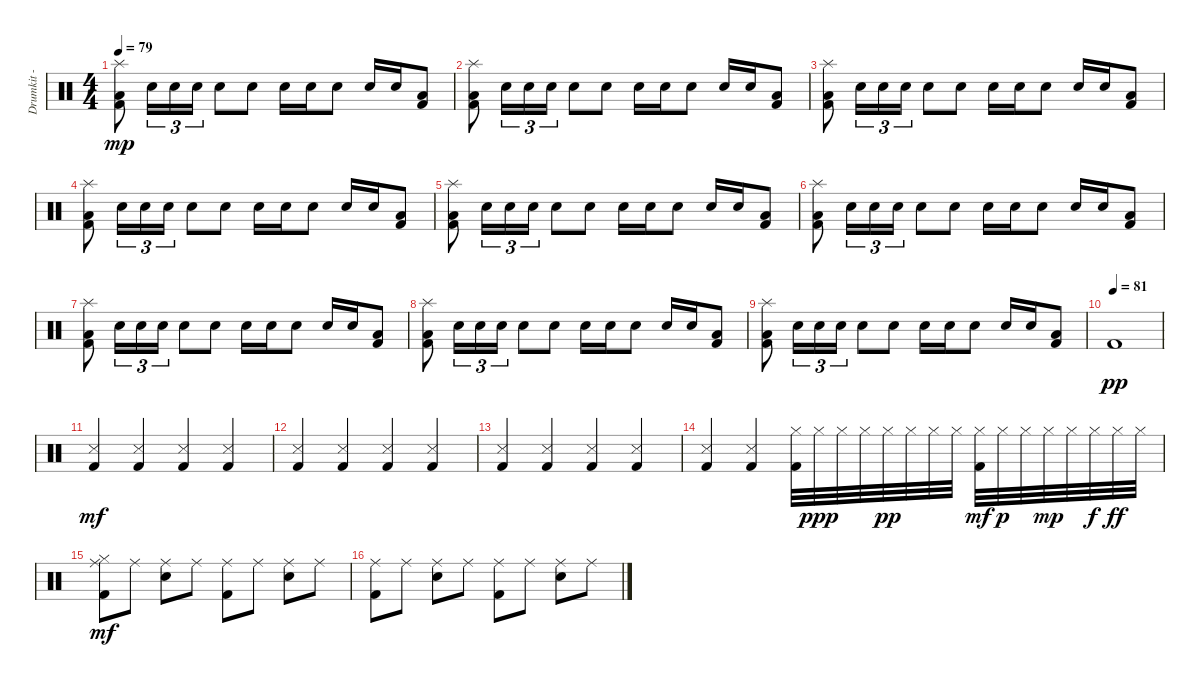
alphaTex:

\track ("Drumkit - Dom" "Drumkit - ") {instrument percussion}
\staff {score}
\articulation defaults
\ts (4 4)
\tempo 79
\clef neutral
\ks c
("Splash (hit)" "Kick (hit) 2" "Low Floor Tom (hit)").8{dy mp} "Snare (hit) 2".16{tu (3 2)} "Snare (hit) 2".16{tu (3 2)} "Snare (hit) 2".16{tu (3 2)} "Snare (hit) 2".8 "Snare (hit) 2".8 "Snare (hit) 2".16 "Snare (hit) 2".16 "Snare (hit) 2".8 "Snare (hit) 2".16 "Snare (hit) 2".16 ("Kick (hit) 2" "Low Tom (hit)").8 |
("Splash (hit)" "Kick (hit) 2" "Low Floor Tom (hit)").8 "Snare (hit) 2".16{tu (3 2)} "Snare (hit) 2".16{tu (3 2)} "Snare (hit) 2".16{tu (3 2)} "Snare (hit) 2".8 "Snare (hit) 2".8 "Snare (hit) 2".16 "Snare (hit) 2".16 "Snare (hit) 2".8 "Snare (hit) 2".16 "Snare (hit) 2".16 ("Kick (hit) 2" "Low Tom (hit)").8 |
("Splash (hit)" "Kick (hit) 2" "Low Floor Tom (hit)").8 "Snare (hit) 2".16{tu (3 2)} "Snare (hit) 2".16{tu (3 2)} "Snare (hit) 2".16{tu (3 2)} "Snare (hit) 2".8 "Snare (hit) 2".8 "Snare (hit) 2".16 "Snare (hit) 2".16 "Snare (hit) 2".8 "Snare (hit) 2".16 "Snare (hit) 2".16 ("Kick (hit) 2" "Low Tom (hit)").8 |
("Splash (hit)" "Kick (hit) 2" "Low Floor Tom (hit)").8 "Snare (hit) 2".16{tu (3 2)} "Snare (hit) 2".16{tu (3 2)} "Snare (hit) 2".16{tu (3 2)} "Snare (hit) 2".8 "Snare (hit) 2".8 "Snare (hit) 2".16 "Snare (hit) 2".16 "Snare (hit) 2".8 "Snare (hit) 2".16 "Snare (hit) 2".16 ("Kick (hit) 2" "Low Tom (hit)").8 |
("Splash (hit)" "Kick (hit) 2" "Low Floor Tom (hit)").8 "Snare (hit) 2".16{tu (3 2)} "Snare (hit) 2".16{tu (3 2)} "Snare (hit) 2".16{tu (3 2)} "Snare (hit) 2".8 "Snare (hit) 2".8 "Snare (hit) 2".16 "Snare (hit) 2".16 "Snare (hit) 2".8 "Snare (hit) 2".16 "Snare (hit) 2".16 ("Kick (hit) 2" "Low Tom (hit)").8 |
("Splash (hit)" "Kick (hit) 2" "Low Floor Tom (hit)").8 "Snare (hit) 2".16{tu (3 2)} "Snare (hit) 2".16{tu (3 2)} "Snare (hit) 2".16{tu (3 2)} "Snare (hit) 2".8 "Snare (hit) 2".8 "Snare (hit) 2".16 "Snare (hit) 2".16 "Snare (hit) 2".8 "Snare (hit) 2".16 "Snare (hit) 2".16 ("Kick (hit) 2" "Low Tom (hit)").8 |
("Splash (hit)" "Kick (hit) 2" "Low Floor Tom (hit)").8 "Snare (hit) 2".16{tu (3 2)} "Snare (hit) 2".16{tu (3 2)} "Snare (hit) 2".16{tu (3 2)} "Snare (hit) 2".8 "Snare (hit) 2".8 "Snare (hit) 2".16 "Snare (hit) 2".16 "Snare (hit) 2".8 "Snare (hit) 2".16 "Snare (hit) 2".16 ("Kick (hit) 2" "Low Tom (hit)").8 |
("Splash (hit)" "Kick (hit) 2" "Low Floor Tom (hit)").8 "Snare (hit) 2".16{tu (3 2)} "Snare (hit) 2".16{tu (3 2)} "Snare (hit) 2".16{tu (3 2)} "Snare (hit) 2".8 "Snare (hit) 2".8 "Snare (hit) 2".16 "Snare (hit) 2".16 "Snare (hit) 2".8 "Snare (hit) 2".16 "Snare (hit) 2".16 ("Kick (hit) 2" "Low Tom (hit)").8 |
("Splash (hit)" "Kick (hit) 2" "Low Floor Tom (hit)").8 "Snare (hit) 2".16{tu (3 2)} "Snare (hit) 2".16{tu (3 2)} "Snare (hit) 2".16{tu (3 2)} "Snare (hit) 2".8 "Snare (hit) 2".8 "Snare (hit) 2".16 "Snare (hit) 2".16 "Snare (hit) 2".8 "Snare (hit) 2".16 "Snare (hit) 2".16 ("Kick (hit) 2" "Low Tom (hit)").8 |
\tempo (81)
"Kick (hit) 2".1{dy pp} |
("Kick (hit) 2" "Snare (side stick) 3").4{dy mf} ("Kick (hit) 2" "Snare (side stick) 3").4 ("Kick (hit) 2" "Snare (side stick) 3").4 ("Kick (hit) 2" "Snare (side stick) 3").4 |
("Kick (hit) 2" "Snare (side stick) 3").4 ("Kick (hit) 2" "Snare (side stick) 3").4 ("Kick (hit) 2" "Snare (side stick) 3").4 ("Kick (hit) 2" "Snare (side stick) 3").4 |
("Kick (hit) 2" "Snare (side stick) 3").4 ("Kick (hit) 2" "Snare (side stick) 3").4 ("Kick (hit) 2" "Snare (side stick) 3").4 ("Kick (hit) 2" "Snare (side stick) 3").4 |
("Kick (hit) 2" "Snare (side stick) 3").4 ("Kick (hit) 2" "Snare (side stick) 3").4 ("Kick (hit) 2" "Hi-Hat (closed)").32 "Hi-Hat (closed)".32{dy ppp} "Hi-Hat (closed)".32 "Hi-Hat (closed)".32 "Hi-Hat (closed)".32{dy pp} "Hi-Hat (closed)".32 "Hi-Hat (closed)".32 "Hi-Hat (closed)".32 ("Kick (hit) 2" "Hi-Hat (closed)").32{dy mf} "Hi-Hat (closed)".32{dy p} "Hi-Hat (closed)".32 "Hi-Hat (closed)".32{dy mp} "Hi-Hat (closed)".32 "Hi-Hat (closed)".32{dy f} "Hi-Hat (closed)".32{dy ff} "Hi-Hat (closed)".32 |
("Ride (middle)" "Kick (hit) 2" "Hi-Hat (closed)").8{dy mf} "Ride (middle)".8 ("Ride (middle)" "Snare (hit) 2").8 "Ride (middle)".8 ("Ride (middle)" "Kick (hit) 2").8 "Ride (middle)".8 ("Ride (middle)" "Snare (hit) 2").8 "Ride (middle)".8 |
("Ride (middle)" "Kick (hit) 2").8 "Ride (middle)".8 ("Ride (middle)" "Snare (hit) 2").8 "Ride (middle)".8 ("Ride (middle)" "Kick (hit) 2").8 "Ride (middle)".8 ("Ride (middle)" "Snare (hit) 2").8 "Ride (middle)".8
